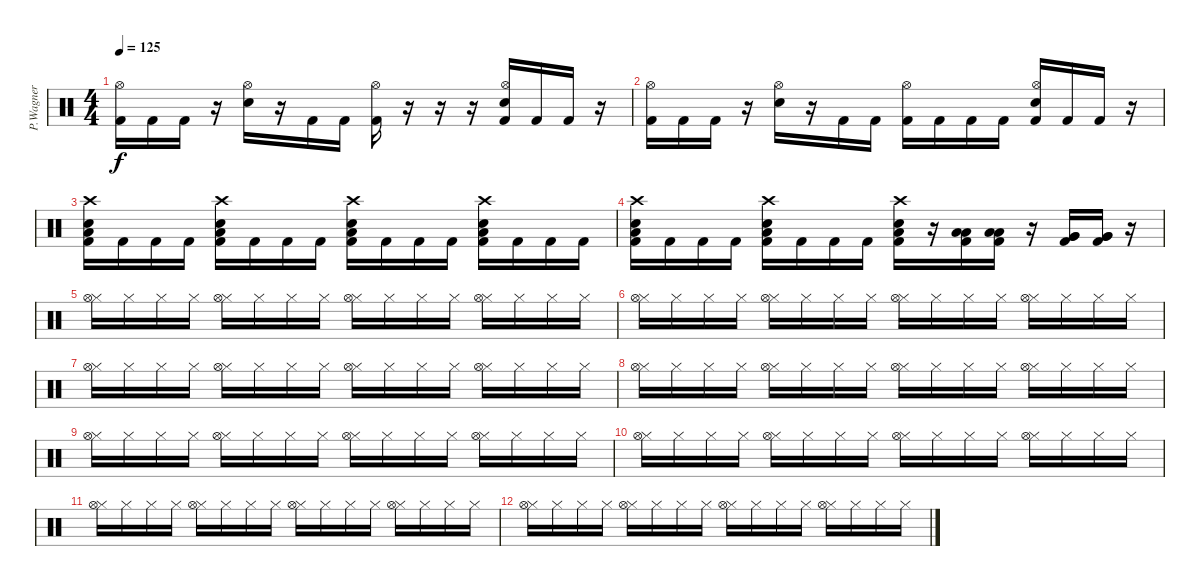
\track ("P.Wagner" "P.Wagner") {instrument percussion}
\staff {score}
\articulation defaults
\ts (4 4)
\tempo 125
\clef neutral
\ks c
("Kick (hit) 2" "Hi-Hat (open)").16{dy f} "Kick (hit) 2".16 "Kick (hit) 2".16 r.16 ("Electric Snare (hit)" "Hi-Hat (open)").16 r.16 "Kick (hit) 2".16 "Kick (hit) 2".16 ("Kick (hit) 2" "Hi-Hat (open)").16 r.16 r.16 r.16 ("Kick (hit) 2" "Electric Snare (hit)" "Hi-Hat (open)").16 "Kick (hit) 2".16 "Kick (hit) 2".16 r.16 |
("Kick (hit) 2" "Hi-Hat (open)").16 "Kick (hit) 2".16 "Kick (hit) 2".16 r.16 ("Electric Snare (hit)" "Hi-Hat (open)").16 r.16 "Kick (hit) 2".16 "Kick (hit) 2".16 ("Kick (hit) 2" "Hi-Hat (open)").16 "Kick (hit) 2".16 "Kick (hit) 2".16 "Kick (hit) 2".16 ("Kick (hit) 2" "Electric Snare (hit)" "Hi-Hat (open)").16 "Kick (hit) 2".16 "Kick (hit) 2".16 r.16 |
("Kick (hit) 2" "Electric Snare (hit)" "Low Floor Tom (hit)" "Crash high (hit)").16 "Kick (hit) 2".16 "Kick (hit) 2".16 "Kick (hit) 2".16 ("Kick (hit) 2" "Electric Snare (hit)" "Low Floor Tom (hit)" "Crash high (hit)").16 "Kick (hit) 2".16 "Kick (hit) 2".16 "Kick (hit) 2".16 ("Kick (hit) 2" "Electric Snare (hit)" "Low Floor Tom (hit)" "Crash high (hit)").16 "Kick (hit) 2".16 "Kick (hit) 2".16 "Kick (hit) 2".16 ("Kick (hit) 2" "Electric Snare (hit)" "Low Floor Tom (hit)" "Crash high (hit)").16 "Kick (hit) 2".16 "Kick (hit) 2".16 "Kick (hit) 2".16 |
("Kick (hit) 2" "Electric Snare (hit)" "Low Floor Tom (hit)" "Crash high (hit)").16 "Kick (hit) 2".16 "Kick (hit) 2".16 "Kick (hit) 2".16 ("Kick (hit) 2" "Electric Snare (hit)" "Low Floor Tom (hit)" "Crash high (hit)").16 "Kick (hit) 2".16 "Kick (hit) 2".16 "Kick (hit) 2".16 ("Kick (hit) 2" "Electric Snare (hit)" "Low Floor Tom (hit)" "Crash high (hit)").16 r.16 ("Kick (hit) 2" "Low Floor Tom (hit)" "Low Floor Tom (hit)").16 ("Kick (hit) 2" "Low Floor Tom (hit)" "Low Floor Tom (hit)").16 r.16 ("Kick (hit) 2" "Very Low Tom (hit)" "Very Low Tom (hit)").16 ("Kick (hit) 2" "Very Low Tom (hit)" "Very Low Tom (hit)").16 r.16 |
("Hi-Hat (closed)" "Hi-Hat (open)").16 "Hi-Hat (closed)".16 "Hi-Hat (closed)".16 "Hi-Hat (closed)".16 ("Hi-Hat (closed)" "Hi-Hat (open)").16 "Hi-Hat (closed)".16 "Hi-Hat (closed)".16 "Hi-Hat (closed)".16 ("Hi-Hat (closed)" "Hi-Hat (open)").16 "Hi-Hat (closed)".16 "Hi-Hat (closed)".16 "Hi-Hat (closed)".16 ("Hi-Hat (closed)" "Hi-Hat (open)").16 "Hi-Hat (closed)".16 "Hi-Hat (closed)".16 "Hi-Hat (closed)".16 |
("Hi-Hat (closed)" "Hi-Hat (open)").16 "Hi-Hat (closed)".16 "Hi-Hat (closed)".16 "Hi-Hat (closed)".16 ("Hi-Hat (closed)" "Hi-Hat (open)").16 "Hi-Hat (closed)".16 "Hi-Hat (closed)".16 "Hi-Hat (closed)".16 ("Hi-Hat (closed)" "Hi-Hat (open)").16 "Hi-Hat (closed)".16 "Hi-Hat (closed)".16 "Hi-Hat (closed)".16 ("Hi-Hat (closed)" "Hi-Hat (open)").16 "Hi-Hat (closed)".16 "Hi-Hat (closed)".16 "Hi-Hat (closed)".16 |
("Hi-Hat (closed)" "Hi-Hat (open)").16 "Hi-Hat (closed)".16 "Hi-Hat (closed)".16 "Hi-Hat (closed)".16 ("Hi-Hat (closed)" "Hi-Hat (open)").16 "Hi-Hat (closed)".16 "Hi-Hat (closed)".16 "Hi-Hat (closed)".16 ("Hi-Hat (closed)" "Hi-Hat (open)").16 "Hi-Hat (closed)".16 "Hi-Hat (closed)".16 "Hi-Hat (closed)".16 ("Hi-Hat (closed)" "Hi-Hat (open)").16 "Hi-Hat (closed)".16 "Hi-Hat (closed)".16 "Hi-Hat (closed)".16 |
("Hi-Hat (closed)" "Hi-Hat (open)").16 "Hi-Hat (closed)".16 "Hi-Hat (closed)".16 "Hi-Hat (closed)".16 ("Hi-Hat (closed)" "Hi-Hat (open)").16 "Hi-Hat (closed)".16 "Hi-Hat (closed)".16 "Hi-Hat (closed)".16 ("Hi-Hat (closed)" "Hi-Hat (open)").16 "Hi-Hat (closed)".16 "Hi-Hat (closed)".16 "Hi-Hat (closed)".16 ("Hi-Hat (closed)" "Hi-Hat (open)").16 "Hi-Hat (closed)".16 "Hi-Hat (closed)".16 "Hi-Hat (closed)".16 |
("Hi-Hat (closed)" "Hi-Hat (open)").16 "Hi-Hat (closed)".16 "Hi-Hat (closed)".16 "Hi-Hat (closed)".16 ("Hi-Hat (closed)" "Hi-Hat (open)").16 "Hi-Hat (closed)".16 "Hi-Hat (closed)".16 "Hi-Hat (closed)".16 ("Hi-Hat (closed)" "Hi-Hat (open)").16 "Hi-Hat (closed)".16 "Hi-Hat (closed)".16 "Hi-Hat (closed)".16 ("Hi-Hat (closed)" "Hi-Hat (open)").16 "Hi-Hat (closed)".16 "Hi-Hat (closed)".16 "Hi-Hat (closed)".16 |
("Hi-Hat (closed)" "Hi-Hat (open)").16 "Hi-Hat (closed)".16 "Hi-Hat (closed)".16 "Hi-Hat (closed)".16 ("Hi-Hat (closed)" "Hi-Hat (open)").16 "Hi-Hat (closed)".16 "Hi-Hat (closed)".16 "Hi-Hat (closed)".16 ("Hi-Hat (closed)" "Hi-Hat (open)").16 "Hi-Hat (closed)".16 "Hi-Hat (closed)".16 "Hi-Hat (closed)".16 ("Hi-Hat (closed)" "Hi-Hat (open)").16 "Hi-Hat (closed)".16 "Hi-Hat (closed)".16 "Hi-Hat (closed)".16 |
("Hi-Hat (closed)" "Hi-Hat (open)").16 "Hi-Hat (closed)".16 "Hi-Hat (closed)".16 "Hi-Hat (closed)".16 ("Hi-Hat (closed)" "Hi-Hat (open)").16 "Hi-Hat (closed)".16 "Hi-Hat (closed)".16 "Hi-Hat (closed)".16 ("Hi-Hat (closed)" "Hi-Hat (open)").16 "Hi-Hat (closed)".16 "Hi-Hat (closed)".16 "Hi-Hat (closed)".16 ("Hi-Hat (closed)" "Hi-Hat (open)").16 "Hi-Hat (closed)".16 "Hi-Hat (closed)".16 "Hi-Hat (closed)".16 |
("Hi-Hat (closed)" "Hi-Hat (open)").16 "Hi-Hat (closed)".16 "Hi-Hat (closed)".16 "Hi-Hat (closed)".16 ("Hi-Hat (closed)" "Hi-Hat (open)").16 "Hi-Hat (closed)".16 "Hi-Hat (closed)".16 "Hi-Hat (closed)".16 ("Hi-Hat (closed)" "Hi-Hat (open)").16 "Hi-Hat (closed)".16 "Hi-Hat (closed)".16 "Hi-Hat (closed)".16 ("Hi-Hat (closed)" "Hi-Hat (open)").16 "Hi-Hat (closed)".16 "Hi-Hat (closed)".16 "Hi-Hat (closed)".16
